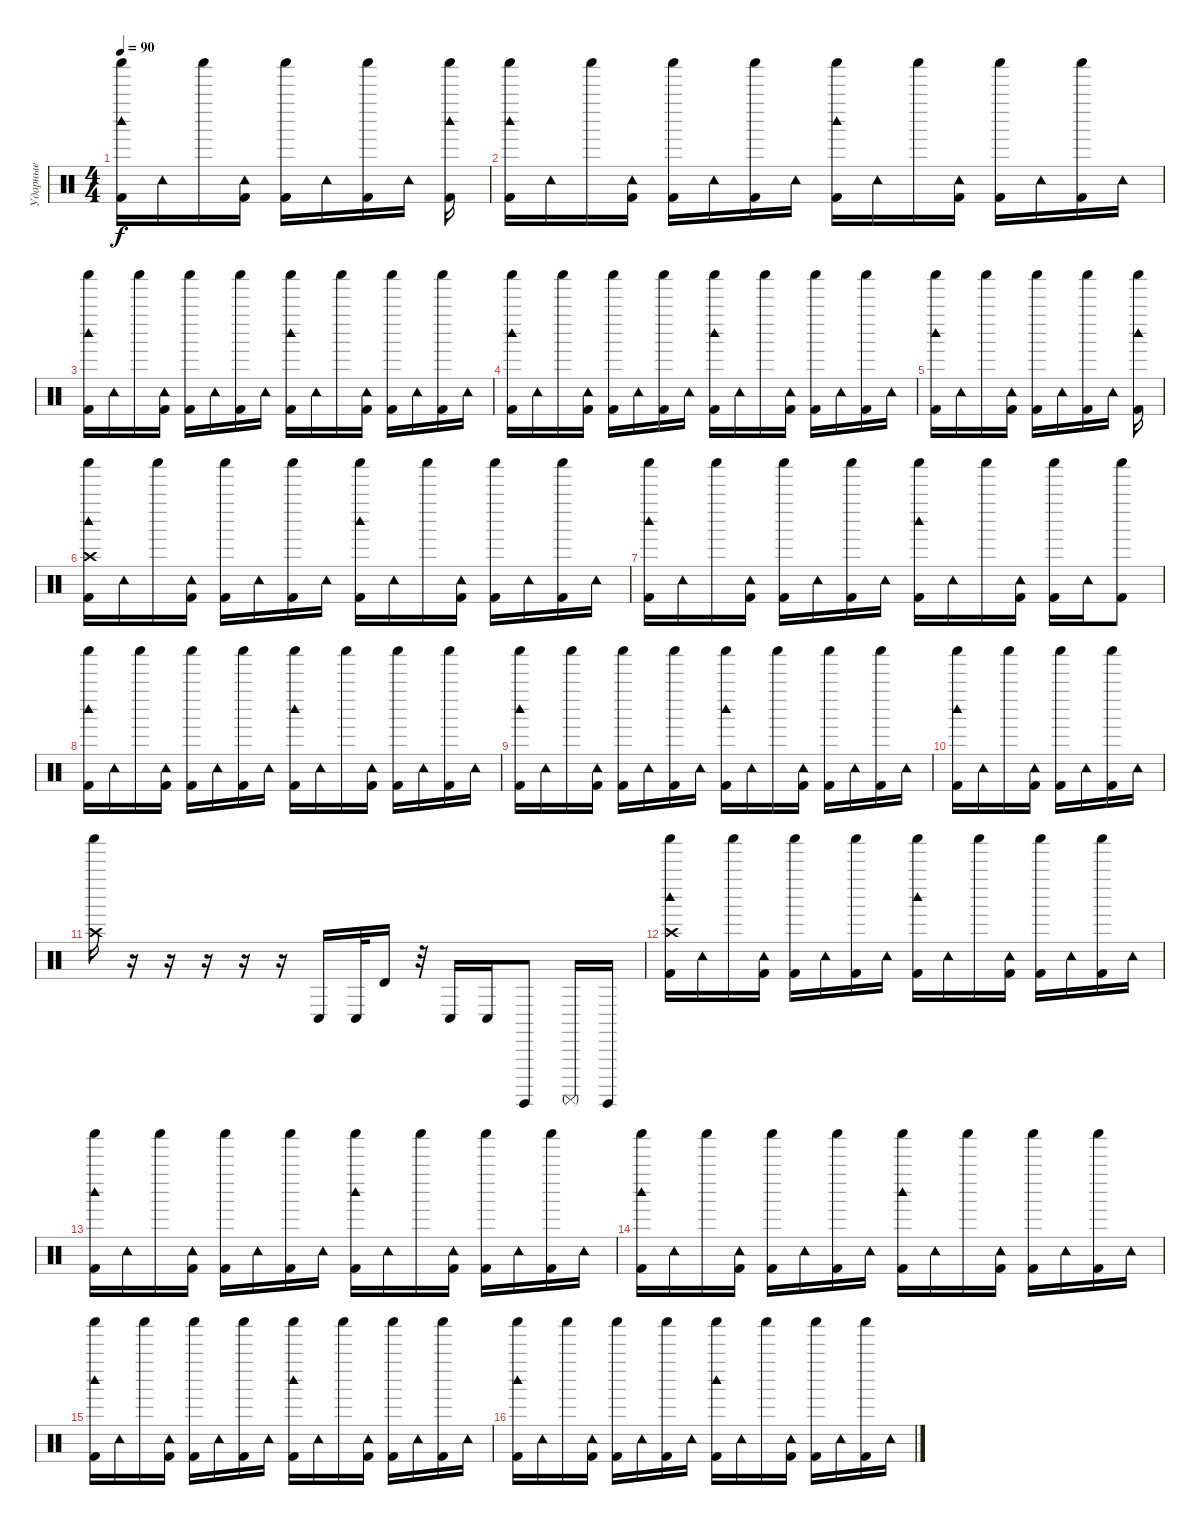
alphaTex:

\track ("Ударные" "Ударные") {instrument percussion}
\staff {score}
\articulation defaults
\ts (4 4)
\tempo 90
\clef neutral
\ks c
("Shaker (hit)" "Kick (hit) 2" "Woodblock high (hit)").16{dy f} "Tambourine (hit)".16 "Shaker (hit)".16 ("Tambourine (hit)" "Kick (hit) 2").16 ("Shaker (hit)" "Kick (hit) 2").16 "Tambourine (hit)".16 ("Shaker (hit)" "Kick (hit) 2").16 "Tambourine (hit)".16 ("Shaker (hit)" "Kick (hit) 2" "Woodblock high (hit)").16 |
("Shaker (hit)" "Kick (hit) 2" "Woodblock high (hit)").16 "Tambourine (hit)".16 "Shaker (hit)".16 ("Tambourine (hit)" "Kick (hit) 2").16 ("Shaker (hit)" "Kick (hit) 2").16 "Tambourine (hit)".16 ("Shaker (hit)" "Kick (hit) 2").16 "Tambourine (hit)".16 ("Shaker (hit)" "Kick (hit) 2" "Woodblock high (hit)").16 "Tambourine (hit)".16 "Shaker (hit)".16 ("Tambourine (hit)" "Kick (hit) 2").16 ("Shaker (hit)" "Kick (hit) 2").16 "Tambourine (hit)".16 ("Shaker (hit)" "Kick (hit) 2").16 "Tambourine (hit)".16 |
("Shaker (hit)" "Kick (hit) 2" "Woodblock high (hit)").16 "Tambourine (hit)".16 "Shaker (hit)".16 ("Tambourine (hit)" "Kick (hit) 2").16 ("Shaker (hit)" "Kick (hit) 2").16 "Tambourine (hit)".16 ("Shaker (hit)" "Kick (hit) 2").16 "Tambourine (hit)".16 ("Shaker (hit)" "Kick (hit) 2" "Woodblock high (hit)").16 "Tambourine (hit)".16 "Shaker (hit)".16 ("Tambourine (hit)" "Kick (hit) 2").16 ("Shaker (hit)" "Kick (hit) 2").16 "Tambourine (hit)".16 ("Shaker (hit)" "Kick (hit) 2").16 "Tambourine (hit)".16 |
("Shaker (hit)" "Kick (hit) 2" "Woodblock high (hit)").16 "Tambourine (hit)".16 "Shaker (hit)".16 ("Tambourine (hit)" "Kick (hit) 2").16 ("Shaker (hit)" "Kick (hit) 2").16 "Tambourine (hit)".16 ("Shaker (hit)" "Kick (hit) 2").16 "Tambourine (hit)".16 ("Shaker (hit)" "Kick (hit) 2" "Woodblock high (hit)").16 "Tambourine (hit)".16 "Shaker (hit)".16 ("Tambourine (hit)" "Kick (hit) 2").16 ("Shaker (hit)" "Kick (hit) 2").16 "Tambourine (hit)".16 ("Shaker (hit)" "Kick (hit) 2").16 "Tambourine (hit)".16 |
("Shaker (hit)" "Kick (hit) 2" "Woodblock high (hit)").16 "Tambourine (hit)".16 "Shaker (hit)".16 ("Tambourine (hit)" "Kick (hit) 2").16 ("Shaker (hit)" "Kick (hit) 2").16 "Tambourine (hit)".16 ("Shaker (hit)" "Kick (hit) 2").16 "Tambourine (hit)".16 ("Shaker (hit)" "Kick (hit) 2" "Woodblock high (hit)").16 |
("Shaker (hit)" "Kick (hit) 2" "Woodblock high (hit)" "Crash high (hit)").16 "Tambourine (hit)".16 "Shaker (hit)".16 ("Tambourine (hit)" "Kick (hit) 2").16 ("Shaker (hit)" "Kick (hit) 2").16 "Tambourine (hit)".16 ("Shaker (hit)" "Kick (hit) 2").16 "Tambourine (hit)".16 ("Shaker (hit)" "Kick (hit) 2" "Woodblock high (hit)").16 "Tambourine (hit)".16 "Shaker (hit)".16 ("Tambourine (hit)" "Kick (hit) 2").16 ("Shaker (hit)" "Kick (hit) 2").16 "Tambourine (hit)".16 ("Shaker (hit)" "Kick (hit) 2").16 "Tambourine (hit)".16 |
("Shaker (hit)" "Kick (hit) 2" "Woodblock high (hit)").16 "Tambourine (hit)".16 "Shaker (hit)".16 ("Tambourine (hit)" "Kick (hit) 2").16 ("Shaker (hit)" "Kick (hit) 2").16 "Tambourine (hit)".16 ("Shaker (hit)" "Kick (hit) 2").16 "Tambourine (hit)".16 ("Shaker (hit)" "Kick (hit) 2" "Woodblock high (hit)").16 "Tambourine (hit)".16 "Shaker (hit)".16 ("Tambourine (hit)" "Kick (hit) 2").16 ("Shaker (hit)" "Kick (hit) 2").16 "Tambourine (hit)".16 ("Shaker (hit)" "Kick (hit) 2").8 |
("Shaker (hit)" "Kick (hit) 2" "Woodblock high (hit)").16 "Tambourine (hit)".16 "Shaker (hit)".16 ("Tambourine (hit)" "Kick (hit) 2").16 ("Shaker (hit)" "Kick (hit) 2").16 "Tambourine (hit)".16 ("Shaker (hit)" "Kick (hit) 2").16 "Tambourine (hit)".16 ("Shaker (hit)" "Kick (hit) 2" "Woodblock high (hit)").16 "Tambourine (hit)".16 "Shaker (hit)".16 ("Tambourine (hit)" "Kick (hit) 2").16 ("Shaker (hit)" "Kick (hit) 2").16 "Tambourine (hit)".16 ("Shaker (hit)" "Kick (hit) 2").16 "Tambourine (hit)".16 |
("Shaker (hit)" "Kick (hit) 2" "Woodblock high (hit)").16 "Tambourine (hit)".16 "Shaker (hit)".16 ("Tambourine (hit)" "Kick (hit) 2").16 ("Shaker (hit)" "Kick (hit) 2").16 "Tambourine (hit)".16 ("Shaker (hit)" "Kick (hit) 2").16 "Tambourine (hit)".16 ("Shaker (hit)" "Kick (hit) 2" "Woodblock high (hit)").16 "Tambourine (hit)".16 "Shaker (hit)".16 ("Tambourine (hit)" "Kick (hit) 2").16 ("Shaker (hit)" "Kick (hit) 2").16 "Tambourine (hit)".16 ("Shaker (hit)" "Kick (hit) 2").16 "Tambourine (hit)".16 |
("Shaker (hit)" "Kick (hit) 2" "Woodblock high (hit)").16 "Tambourine (hit)".16 "Shaker (hit)".16 ("Tambourine (hit)" "Kick (hit) 2").16 ("Shaker (hit)" "Kick (hit) 2").16 "Tambourine (hit)".16 ("Shaker (hit)" "Kick (hit) 2").16 "Tambourine (hit)".16 |
("Shaker (hit)" "Crash high (hit)").16 r.16 r.16 r.16 r.16 r.16 "Conga low (hit)".16 "Conga low (hit)".32 "Timbale high (hit)".16 r.32 "Conga low (hit)".16 "Conga low (hit)".16 "Surdo (hit)".8 "Surdo (mute)".16 "Surdo (hit)".16 |
("Shaker (hit)" "Kick (hit) 2" "Woodblock high (hit)" "Crash high (hit)").16 "Tambourine (hit)".16 "Shaker (hit)".16 ("Tambourine (hit)" "Kick (hit) 2").16 ("Shaker (hit)" "Kick (hit) 2").16 "Tambourine (hit)".16 ("Shaker (hit)" "Kick (hit) 2").16 "Tambourine (hit)".16 ("Shaker (hit)" "Kick (hit) 2" "Woodblock high (hit)").16 "Tambourine (hit)".16 "Shaker (hit)".16 ("Tambourine (hit)" "Kick (hit) 2").16 ("Shaker (hit)" "Kick (hit) 2").16 "Tambourine (hit)".16 ("Shaker (hit)" "Kick (hit) 2").16 "Tambourine (hit)".16 |
("Shaker (hit)" "Kick (hit) 2" "Woodblock high (hit)").16 "Tambourine (hit)".16 "Shaker (hit)".16 ("Tambourine (hit)" "Kick (hit) 2").16 ("Shaker (hit)" "Kick (hit) 2").16 "Tambourine (hit)".16 ("Shaker (hit)" "Kick (hit) 2").16 "Tambourine (hit)".16 ("Shaker (hit)" "Kick (hit) 2" "Woodblock high (hit)").16 "Tambourine (hit)".16 "Shaker (hit)".16 ("Tambourine (hit)" "Kick (hit) 2").16 ("Shaker (hit)" "Kick (hit) 2").16 "Tambourine (hit)".16 ("Shaker (hit)" "Kick (hit) 2").16 "Tambourine (hit)".16 |
("Shaker (hit)" "Kick (hit) 2" "Woodblock high (hit)").16 "Tambourine (hit)".16 "Shaker (hit)".16 ("Tambourine (hit)" "Kick (hit) 2").16 ("Shaker (hit)" "Kick (hit) 2").16 "Tambourine (hit)".16 ("Shaker (hit)" "Kick (hit) 2").16 "Tambourine (hit)".16 ("Shaker (hit)" "Kick (hit) 2" "Woodblock high (hit)").16 "Tambourine (hit)".16 "Shaker (hit)".16 ("Tambourine (hit)" "Kick (hit) 2").16 ("Shaker (hit)" "Kick (hit) 2").16 "Tambourine (hit)".16 ("Shaker (hit)" "Kick (hit) 2").16 "Tambourine (hit)".16 |
("Shaker (hit)" "Kick (hit) 2" "Woodblock high (hit)").16 "Tambourine (hit)".16 "Shaker (hit)".16 ("Tambourine (hit)" "Kick (hit) 2").16 ("Shaker (hit)" "Kick (hit) 2").16 "Tambourine (hit)".16 ("Shaker (hit)" "Kick (hit) 2").16 "Tambourine (hit)".16 ("Shaker (hit)" "Kick (hit) 2" "Woodblock high (hit)").16 "Tambourine (hit)".16 "Shaker (hit)".16 ("Tambourine (hit)" "Kick (hit) 2").16 ("Shaker (hit)" "Kick (hit) 2").16 "Tambourine (hit)".16 ("Shaker (hit)" "Kick (hit) 2").16 "Tambourine (hit)".16 |
("Shaker (hit)" "Kick (hit) 2" "Woodblock high (hit)").16 "Tambourine (hit)".16 "Shaker (hit)".16 ("Tambourine (hit)" "Kick (hit) 2").16 ("Shaker (hit)" "Kick (hit) 2").16 "Tambourine (hit)".16 ("Shaker (hit)" "Kick (hit) 2").16 "Tambourine (hit)".16 ("Shaker (hit)" "Kick (hit) 2" "Woodblock high (hit)").16 "Tambourine (hit)".16 "Shaker (hit)".16 ("Tambourine (hit)" "Kick (hit) 2").16 ("Shaker (hit)" "Kick (hit) 2").16 "Tambourine (hit)".16 ("Shaker (hit)" "Kick (hit) 2").16 "Tambourine (hit)".16
